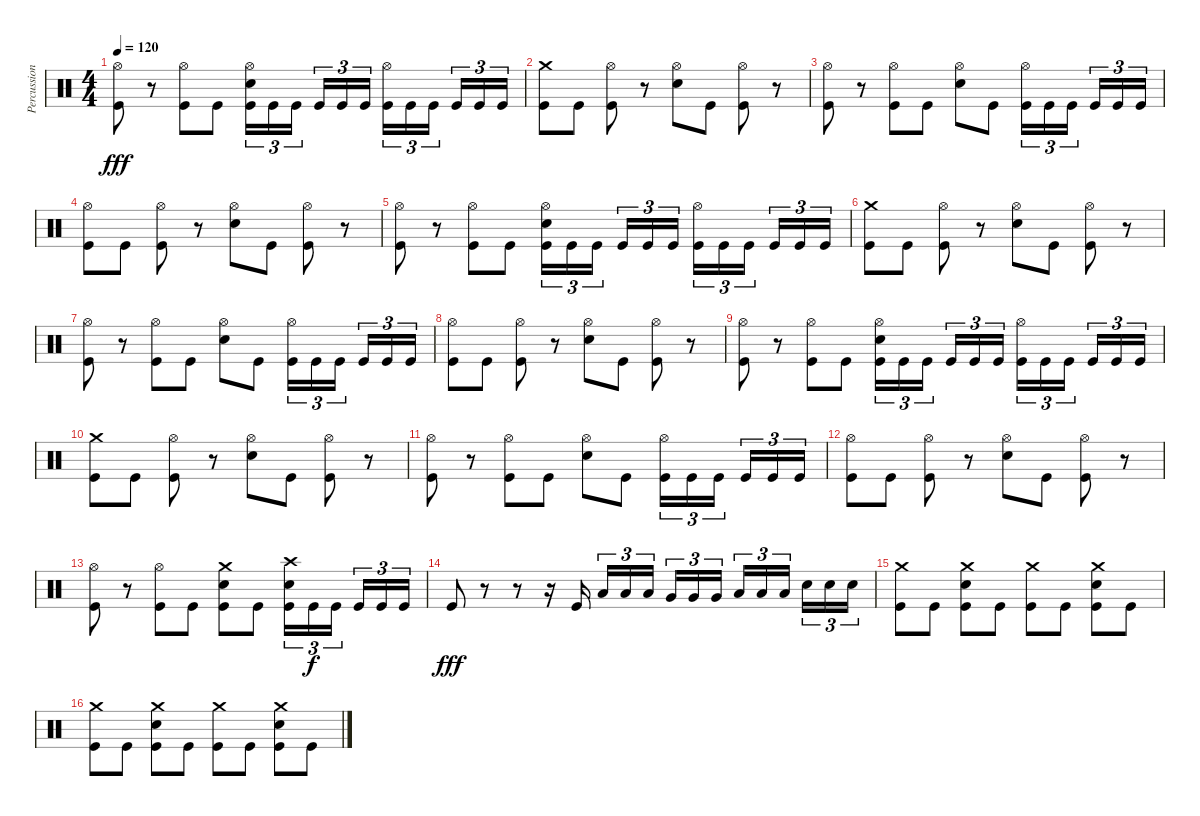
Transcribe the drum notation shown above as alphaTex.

\track ("Percussion" "Percussion") {instrument percussion}
\staff {score}
\articulation defaults
\ts (4 4)
\tempo 120
\clef neutral
\ks c
("Hi-Hat (open)" "Kick (hit)").8{dy fff} r.8 ("Hi-Hat (open)" "Kick (hit)").8 "Kick (hit)".8 ("Hi-Hat (open)" "Electric Snare (hit)" "Kick (hit)").16{tu (3 2)} "Kick (hit)".16{tu (3 2)} "Kick (hit)".16{tu (3 2) beam splitsecondary} "Kick (hit)".16{tu (3 2)} "Kick (hit)".16{tu (3 2)} "Kick (hit)".16{tu (3 2)} ("Hi-Hat (open)" "Kick (hit)").16{tu (3 2)} "Kick (hit)".16{tu (3 2)} "Kick (hit)".16{tu (3 2) beam splitsecondary} "Kick (hit)".16{tu (3 2)} "Kick (hit)".16{tu (3 2)} "Kick (hit)".16{tu (3 2)} |
("Crash medium (hit)" "Kick (hit)").8 "Kick (hit)".8 ("Hi-Hat (open)" "Kick (hit)").8 r.8 ("Hi-Hat (open)" "Electric Snare (hit)").8 "Kick (hit)".8 ("Hi-Hat (open)" "Kick (hit)").8 r.8 |
("Hi-Hat (open)" "Kick (hit)").8 r.8 ("Hi-Hat (open)" "Kick (hit)").8 "Kick (hit)".8 ("Hi-Hat (open)" "Electric Snare (hit)").8 "Kick (hit)".8 ("Hi-Hat (open)" "Kick (hit)").16{tu (3 2)} "Kick (hit)".16{tu (3 2)} "Kick (hit)".16{tu (3 2) beam splitsecondary} "Kick (hit)".16{tu (3 2)} "Kick (hit)".16{tu (3 2)} "Kick (hit)".16{tu (3 2)} |
("Hi-Hat (open)" "Kick (hit)").8 "Kick (hit)".8 ("Hi-Hat (open)" "Kick (hit)").8 r.8 ("Hi-Hat (open)" "Electric Snare (hit)").8 "Kick (hit)".8 ("Hi-Hat (open)" "Kick (hit)").8 r.8 |
("Hi-Hat (open)" "Kick (hit)").8 r.8 ("Hi-Hat (open)" "Kick (hit)").8 "Kick (hit)".8 ("Hi-Hat (open)" "Electric Snare (hit)" "Kick (hit)").16{tu (3 2)} "Kick (hit)".16{tu (3 2)} "Kick (hit)".16{tu (3 2) beam splitsecondary} "Kick (hit)".16{tu (3 2)} "Kick (hit)".16{tu (3 2)} "Kick (hit)".16{tu (3 2)} ("Hi-Hat (open)" "Kick (hit)").16{tu (3 2)} "Kick (hit)".16{tu (3 2)} "Kick (hit)".16{tu (3 2) beam splitsecondary} "Kick (hit)".16{tu (3 2)} "Kick (hit)".16{tu (3 2)} "Kick (hit)".16{tu (3 2)} |
("Crash medium (hit)" "Kick (hit)").8 "Kick (hit)".8 ("Hi-Hat (open)" "Kick (hit)").8 r.8 ("Hi-Hat (open)" "Electric Snare (hit)").8 "Kick (hit)".8 ("Hi-Hat (open)" "Kick (hit)").8 r.8 |
("Hi-Hat (open)" "Kick (hit)").8 r.8 ("Hi-Hat (open)" "Kick (hit)").8 "Kick (hit)".8 ("Hi-Hat (open)" "Electric Snare (hit)").8 "Kick (hit)".8 ("Hi-Hat (open)" "Kick (hit)").16{tu (3 2)} "Kick (hit)".16{tu (3 2)} "Kick (hit)".16{tu (3 2) beam splitsecondary} "Kick (hit)".16{tu (3 2)} "Kick (hit)".16{tu (3 2)} "Kick (hit)".16{tu (3 2)} |
("Hi-Hat (open)" "Kick (hit)").8 "Kick (hit)".8 ("Hi-Hat (open)" "Kick (hit)").8 r.8 ("Hi-Hat (open)" "Electric Snare (hit)").8 "Kick (hit)".8 ("Hi-Hat (open)" "Kick (hit)").8 r.8 |
("Hi-Hat (open)" "Kick (hit)").8 r.8 ("Hi-Hat (open)" "Kick (hit)").8 "Kick (hit)".8 ("Hi-Hat (open)" "Electric Snare (hit)" "Kick (hit)").16{tu (3 2)} "Kick (hit)".16{tu (3 2)} "Kick (hit)".16{tu (3 2) beam splitsecondary} "Kick (hit)".16{tu (3 2)} "Kick (hit)".16{tu (3 2)} "Kick (hit)".16{tu (3 2)} ("Hi-Hat (open)" "Kick (hit)").16{tu (3 2)} "Kick (hit)".16{tu (3 2)} "Kick (hit)".16{tu (3 2) beam splitsecondary} "Kick (hit)".16{tu (3 2)} "Kick (hit)".16{tu (3 2)} "Kick (hit)".16{tu (3 2)} |
("Crash medium (hit)" "Kick (hit)").8 "Kick (hit)".8 ("Hi-Hat (open)" "Kick (hit)").8 r.8 ("Hi-Hat (open)" "Electric Snare (hit)").8 "Kick (hit)".8 ("Hi-Hat (open)" "Kick (hit)").8 r.8 |
("Hi-Hat (open)" "Kick (hit)").8 r.8 ("Hi-Hat (open)" "Kick (hit)").8 "Kick (hit)".8 ("Hi-Hat (open)" "Electric Snare (hit)").8 "Kick (hit)".8 ("Hi-Hat (open)" "Kick (hit)").16{tu (3 2)} "Kick (hit)".16{tu (3 2)} "Kick (hit)".16{tu (3 2) beam splitsecondary} "Kick (hit)".16{tu (3 2)} "Kick (hit)".16{tu (3 2)} "Kick (hit)".16{tu (3 2)} |
("Hi-Hat (open)" "Kick (hit)").8 "Kick (hit)".8 ("Hi-Hat (open)" "Kick (hit)").8 r.8 ("Hi-Hat (open)" "Electric Snare (hit)").8 "Kick (hit)".8 ("Hi-Hat (open)" "Kick (hit)").8 r.8 |
("Hi-Hat (open)" "Kick (hit)").8 r.8 ("Hi-Hat (open)" "Kick (hit)").8 "Kick (hit)".8 ("Crash medium (hit)" "Electric Snare (hit)" "Kick (hit)").8 "Kick (hit)".8 ("Crash high (hit)" "Electric Snare (hit)" "Kick (hit)").16{tu (3 2)} "Kick (hit)".16{tu (3 2) dy f} "Kick (hit)".16{tu (3 2) beam splitsecondary} "Kick (hit)".16{tu (3 2)} "Kick (hit)".16{tu (3 2)} "Kick (hit)".16{tu (3 2)} |
"Kick (hit)".8{dy fff} r.8 r.8 r.16 "Kick (hit)".16 "Low Tom (hit)".16{tu (3 2)} "Low Tom (hit)".16{tu (3 2)} "Low Tom (hit)".16{tu (3 2) beam splitsecondary} "Very Low Tom (hit)".16{tu (3 2)} "Very Low Tom (hit)".16{tu (3 2)} "Very Low Tom (hit)".16{tu (3 2)} "Low Floor Tom (hit)".16{tu (3 2)} "Low Floor Tom (hit)".16{tu (3 2)} "Low Floor Tom (hit)".16{tu (3 2) beam splitsecondary} "Electric Snare (hit)".16{tu (3 2)} "Electric Snare (hit)".16{tu (3 2)} "Electric Snare (hit)".16{tu (3 2)} |
("Crash medium (hit)" "Kick (hit)").8 "Kick (hit)".8 ("Crash medium (hit)" "Electric Snare (hit)" "Kick (hit)").8 "Kick (hit)".8 ("Crash medium (hit)" "Kick (hit)").8 "Kick (hit)".8 ("Crash medium (hit)" "Electric Snare (hit)" "Kick (hit)").8 "Kick (hit)".8 |
("Crash medium (hit)" "Kick (hit)").8 "Kick (hit)".8 ("Crash medium (hit)" "Electric Snare (hit)" "Kick (hit)").8 "Kick (hit)".8 ("Crash medium (hit)" "Kick (hit)").8 "Kick (hit)".8 ("Crash medium (hit)" "Electric Snare (hit)" "Kick (hit)").8 "Kick (hit)".8
